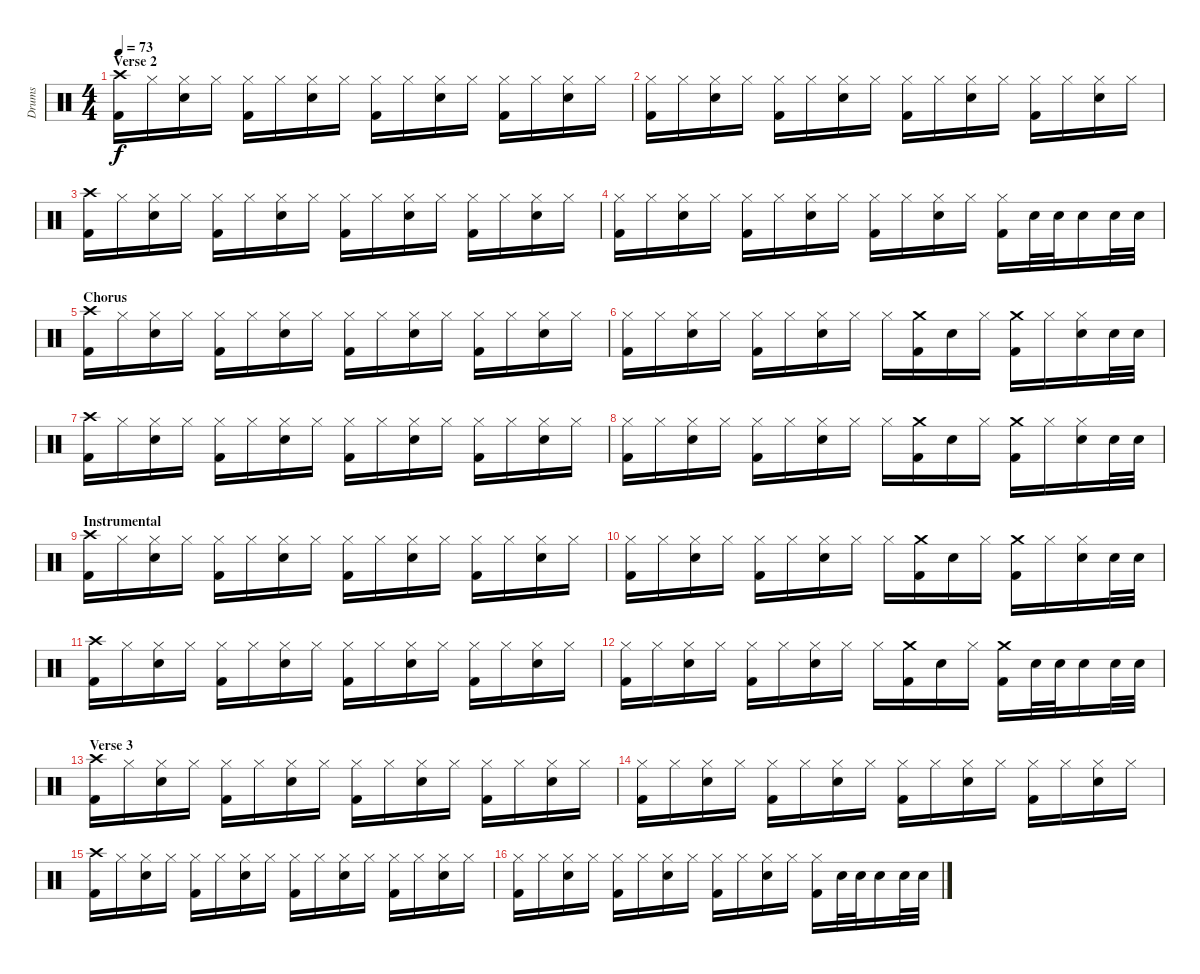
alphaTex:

\track ("Drums" "Drums") {instrument percussion}
\staff {score}
\articulation defaults
\ts (4 4)
\section ("" "Verse 2")
\tempo 73
\clef neutral
\ks c
("Crash high (hit)" "Kick (hit) 2").16{dy f} "Hi-Hat (closed)".16 ("Hi-Hat (closed)" "Snare (hit) 2").16 "Hi-Hat (closed)".16 ("Hi-Hat (closed)" "Kick (hit) 2").16 "Hi-Hat (closed)".16 ("Hi-Hat (closed)" "Snare (hit) 2").16 "Hi-Hat (closed)".16 ("Hi-Hat (closed)" "Kick (hit) 2").16 "Hi-Hat (closed)".16 ("Hi-Hat (closed)" "Snare (hit) 2").16 "Hi-Hat (closed)".16 ("Hi-Hat (closed)" "Kick (hit) 2").16 "Hi-Hat (closed)".16 ("Hi-Hat (closed)" "Snare (hit) 2").16 "Hi-Hat (closed)".16 |
("Hi-Hat (closed)" "Kick (hit) 2").16 "Hi-Hat (closed)".16 ("Hi-Hat (closed)" "Snare (hit) 2").16 "Hi-Hat (closed)".16 ("Hi-Hat (closed)" "Kick (hit) 2").16 "Hi-Hat (closed)".16 ("Hi-Hat (closed)" "Snare (hit) 2").16 "Hi-Hat (closed)".16 ("Hi-Hat (closed)" "Kick (hit) 2").16 "Hi-Hat (closed)".16 ("Hi-Hat (closed)" "Snare (hit) 2").16 "Hi-Hat (closed)".16 ("Hi-Hat (closed)" "Kick (hit) 2").16 "Hi-Hat (closed)".16 ("Hi-Hat (closed)" "Snare (hit) 2").16 "Hi-Hat (closed)".16 |
("Crash high (hit)" "Kick (hit) 2").16 "Hi-Hat (closed)".16 ("Hi-Hat (closed)" "Snare (hit) 2").16 "Hi-Hat (closed)".16 ("Hi-Hat (closed)" "Kick (hit) 2").16 "Hi-Hat (closed)".16 ("Hi-Hat (closed)" "Snare (hit) 2").16 "Hi-Hat (closed)".16 ("Hi-Hat (closed)" "Kick (hit) 2").16 "Hi-Hat (closed)".16 ("Hi-Hat (closed)" "Snare (hit) 2").16 "Hi-Hat (closed)".16 ("Hi-Hat (closed)" "Kick (hit) 2").16 "Hi-Hat (closed)".16 ("Hi-Hat (closed)" "Snare (hit) 2").16 "Hi-Hat (closed)".16 |
("Hi-Hat (closed)" "Kick (hit) 2").16 "Hi-Hat (closed)".16 ("Hi-Hat (closed)" "Snare (hit) 2").16 "Hi-Hat (closed)".16 ("Hi-Hat (closed)" "Kick (hit) 2").16 "Hi-Hat (closed)".16 ("Hi-Hat (closed)" "Snare (hit) 2").16 "Hi-Hat (closed)".16 ("Hi-Hat (closed)" "Kick (hit) 2").16 "Hi-Hat (closed)".16 ("Hi-Hat (closed)" "Snare (hit) 2").16 "Hi-Hat (closed)".16 ("Hi-Hat (closed)" "Kick (hit) 2").16 "Snare (hit) 2".32 "Snare (hit) 2".32 "Snare (hit) 2".16 "Snare (hit) 2".32 "Snare (hit) 2".32 |
\section ("" "Chorus")
("Crash high (hit)" "Kick (hit) 2").16 "Hi-Hat (closed)".16 ("Hi-Hat (closed)" "Snare (hit) 2").16 "Hi-Hat (closed)".16 ("Hi-Hat (closed)" "Kick (hit) 2").16 "Hi-Hat (closed)".16 ("Hi-Hat (closed)" "Snare (hit) 2").16 "Hi-Hat (closed)".16 ("Hi-Hat (closed)" "Kick (hit) 2").16 "Hi-Hat (closed)".16 ("Hi-Hat (closed)" "Snare (hit) 2").16 "Hi-Hat (closed)".16 ("Hi-Hat (closed)" "Kick (hit) 2").16 "Hi-Hat (closed)".16 ("Hi-Hat (closed)" "Snare (hit) 2").16 "Hi-Hat (closed)".16 |
("Hi-Hat (closed)" "Kick (hit) 2").16 "Hi-Hat (closed)".16 ("Hi-Hat (closed)" "Snare (hit) 2").16 "Hi-Hat (closed)".16 ("Hi-Hat (closed)" "Kick (hit) 2").16 "Hi-Hat (closed)".16 ("Hi-Hat (closed)" "Snare (hit) 2").16 "Hi-Hat (closed)".16 "Hi-Hat (closed)".16 ("Crash medium (hit)" "Kick (hit) 2").16 "Snare (hit) 2".16 "Hi-Hat (closed)".16 ("Crash medium (hit)" "Kick (hit) 2").16 "Hi-Hat (closed)".16 ("Hi-Hat (closed)" "Snare (hit) 2").16 "Snare (hit) 2".32 "Snare (hit) 2".32 |
("Crash high (hit)" "Kick (hit) 2").16 "Hi-Hat (closed)".16 ("Hi-Hat (closed)" "Snare (hit) 2").16 "Hi-Hat (closed)".16 ("Hi-Hat (closed)" "Kick (hit) 2").16 "Hi-Hat (closed)".16 ("Hi-Hat (closed)" "Snare (hit) 2").16 "Hi-Hat (closed)".16 ("Hi-Hat (closed)" "Kick (hit) 2").16 "Hi-Hat (closed)".16 ("Hi-Hat (closed)" "Snare (hit) 2").16 "Hi-Hat (closed)".16 ("Hi-Hat (closed)" "Kick (hit) 2").16 "Hi-Hat (closed)".16 ("Hi-Hat (closed)" "Snare (hit) 2").16 "Hi-Hat (closed)".16 |
("Hi-Hat (closed)" "Kick (hit) 2").16 "Hi-Hat (closed)".16 ("Hi-Hat (closed)" "Snare (hit) 2").16 "Hi-Hat (closed)".16 ("Hi-Hat (closed)" "Kick (hit) 2").16 "Hi-Hat (closed)".16 ("Hi-Hat (closed)" "Snare (hit) 2").16 "Hi-Hat (closed)".16 "Hi-Hat (closed)".16 ("Crash medium (hit)" "Kick (hit) 2").16 "Snare (hit) 2".16 "Hi-Hat (closed)".16 ("Crash medium (hit)" "Kick (hit) 2").16 "Hi-Hat (closed)".16 ("Hi-Hat (closed)" "Snare (hit) 2").16 "Snare (hit) 2".32 "Snare (hit) 2".32 |
\section ("" "Instrumental")
("Crash high (hit)" "Kick (hit) 2").16 "Hi-Hat (closed)".16 ("Hi-Hat (closed)" "Snare (hit) 2").16 "Hi-Hat (closed)".16 ("Hi-Hat (closed)" "Kick (hit) 2").16 "Hi-Hat (closed)".16 ("Hi-Hat (closed)" "Snare (hit) 2").16 "Hi-Hat (closed)".16 ("Hi-Hat (closed)" "Kick (hit) 2").16 "Hi-Hat (closed)".16 ("Hi-Hat (closed)" "Snare (hit) 2").16 "Hi-Hat (closed)".16 ("Hi-Hat (closed)" "Kick (hit) 2").16 "Hi-Hat (closed)".16 ("Hi-Hat (closed)" "Snare (hit) 2").16 "Hi-Hat (closed)".16 |
("Hi-Hat (closed)" "Kick (hit) 2").16 "Hi-Hat (closed)".16 ("Hi-Hat (closed)" "Snare (hit) 2").16 "Hi-Hat (closed)".16 ("Hi-Hat (closed)" "Kick (hit) 2").16 "Hi-Hat (closed)".16 ("Hi-Hat (closed)" "Snare (hit) 2").16 "Hi-Hat (closed)".16 "Hi-Hat (closed)".16 ("Crash medium (hit)" "Kick (hit) 2").16 "Snare (hit) 2".16 "Hi-Hat (closed)".16 ("Crash medium (hit)" "Kick (hit) 2").16 "Hi-Hat (closed)".16 ("Hi-Hat (closed)" "Snare (hit) 2").16 "Snare (hit) 2".32 "Snare (hit) 2".32 |
("Crash high (hit)" "Kick (hit) 2").16 "Hi-Hat (closed)".16 ("Hi-Hat (closed)" "Snare (hit) 2").16 "Hi-Hat (closed)".16 ("Hi-Hat (closed)" "Kick (hit) 2").16 "Hi-Hat (closed)".16 ("Hi-Hat (closed)" "Snare (hit) 2").16 "Hi-Hat (closed)".16 ("Hi-Hat (closed)" "Kick (hit) 2").16 "Hi-Hat (closed)".16 ("Hi-Hat (closed)" "Snare (hit) 2").16 "Hi-Hat (closed)".16 ("Hi-Hat (closed)" "Kick (hit) 2").16 "Hi-Hat (closed)".16 ("Hi-Hat (closed)" "Snare (hit) 2").16 "Hi-Hat (closed)".16 |
("Hi-Hat (closed)" "Kick (hit) 2").16 "Hi-Hat (closed)".16 ("Hi-Hat (closed)" "Snare (hit) 2").16 "Hi-Hat (closed)".16 ("Hi-Hat (closed)" "Kick (hit) 2").16 "Hi-Hat (closed)".16 ("Hi-Hat (closed)" "Snare (hit) 2").16 "Hi-Hat (closed)".16 "Hi-Hat (closed)".16 ("Crash medium (hit)" "Kick (hit) 2").16 "Snare (hit) 2".16 "Hi-Hat (closed)".16 ("Crash medium (hit)" "Kick (hit) 2").16 "Snare (hit) 2".32 "Snare (hit) 2".32 "Snare (hit) 2".16 "Snare (hit) 2".32 "Snare (hit) 2".32 |
\section ("" "Verse 3")
("Crash high (hit)" "Kick (hit) 2").16 "Hi-Hat (closed)".16 ("Hi-Hat (closed)" "Snare (hit) 2").16 "Hi-Hat (closed)".16 ("Hi-Hat (closed)" "Kick (hit) 2").16 "Hi-Hat (closed)".16 ("Hi-Hat (closed)" "Snare (hit) 2").16 "Hi-Hat (closed)".16 ("Hi-Hat (closed)" "Kick (hit) 2").16 "Hi-Hat (closed)".16 ("Hi-Hat (closed)" "Snare (hit) 2").16 "Hi-Hat (closed)".16 ("Hi-Hat (closed)" "Kick (hit) 2").16 "Hi-Hat (closed)".16 ("Hi-Hat (closed)" "Snare (hit) 2").16 "Hi-Hat (closed)".16 |
("Hi-Hat (closed)" "Kick (hit) 2").16 "Hi-Hat (closed)".16 ("Hi-Hat (closed)" "Snare (hit) 2").16 "Hi-Hat (closed)".16 ("Hi-Hat (closed)" "Kick (hit) 2").16 "Hi-Hat (closed)".16 ("Hi-Hat (closed)" "Snare (hit) 2").16 "Hi-Hat (closed)".16 ("Hi-Hat (closed)" "Kick (hit) 2").16 "Hi-Hat (closed)".16 ("Hi-Hat (closed)" "Snare (hit) 2").16 "Hi-Hat (closed)".16 ("Hi-Hat (closed)" "Kick (hit) 2").16 "Hi-Hat (closed)".16 ("Hi-Hat (closed)" "Snare (hit) 2").16 "Hi-Hat (closed)".16 |
("Crash high (hit)" "Kick (hit) 2").16 "Hi-Hat (closed)".16 ("Hi-Hat (closed)" "Snare (hit) 2").16 "Hi-Hat (closed)".16 ("Hi-Hat (closed)" "Kick (hit) 2").16 "Hi-Hat (closed)".16 ("Hi-Hat (closed)" "Snare (hit) 2").16 "Hi-Hat (closed)".16 ("Hi-Hat (closed)" "Kick (hit) 2").16 "Hi-Hat (closed)".16 ("Hi-Hat (closed)" "Snare (hit) 2").16 "Hi-Hat (closed)".16 ("Hi-Hat (closed)" "Kick (hit) 2").16 "Hi-Hat (closed)".16 ("Hi-Hat (closed)" "Snare (hit) 2").16 "Hi-Hat (closed)".16 |
("Hi-Hat (closed)" "Kick (hit) 2").16 "Hi-Hat (closed)".16 ("Hi-Hat (closed)" "Snare (hit) 2").16 "Hi-Hat (closed)".16 ("Hi-Hat (closed)" "Kick (hit) 2").16 "Hi-Hat (closed)".16 ("Hi-Hat (closed)" "Snare (hit) 2").16 "Hi-Hat (closed)".16 ("Hi-Hat (closed)" "Kick (hit) 2").16 "Hi-Hat (closed)".16 ("Hi-Hat (closed)" "Snare (hit) 2").16 "Hi-Hat (closed)".16 ("Hi-Hat (closed)" "Kick (hit) 2").16 "Snare (hit) 2".32 "Snare (hit) 2".32 "Snare (hit) 2".16 "Snare (hit) 2".32 "Snare (hit) 2".32
